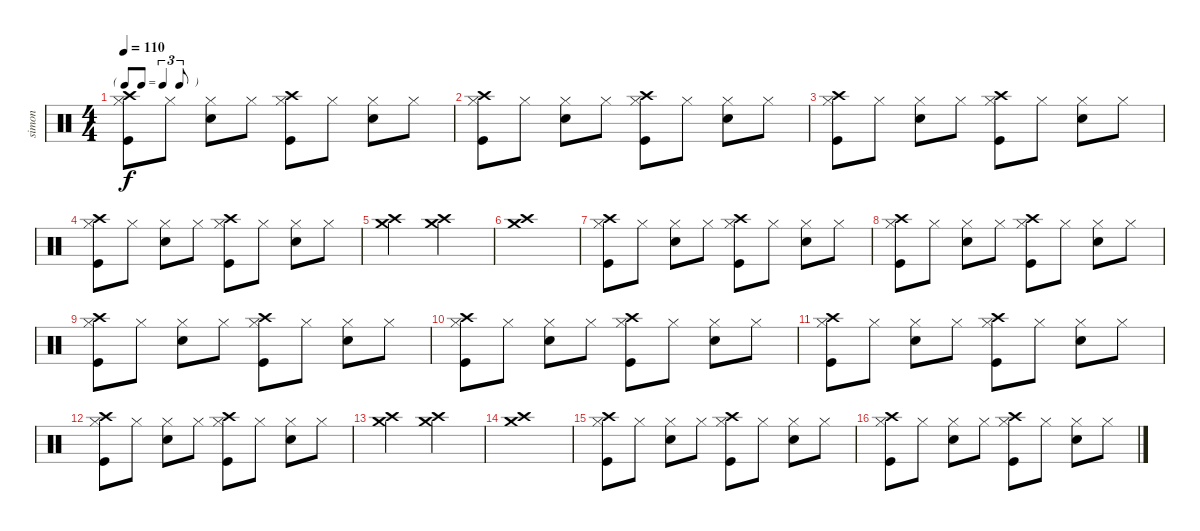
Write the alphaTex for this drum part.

\track ("simon" "simon") {instrument percussion}
\staff {score}
\articulation defaults
\ts (4 4)
\tf triplet8th
\tempo 110
\clef neutral
\ks c
("Hi-Hat (closed)" "Kick (hit)" "Crash high (hit)").8{dy f} "Hi-Hat (closed)".8 ("Hi-Hat (closed)" "Snare (hit) 2").8 "Hi-Hat (closed)".8 ("Hi-Hat (closed)" "Kick (hit)" "Crash high (hit)").8 "Hi-Hat (closed)".8 ("Hi-Hat (closed)" "Snare (hit) 2").8 "Hi-Hat (closed)".8 |
("Hi-Hat (closed)" "Kick (hit)" "Crash high (hit)").8 "Hi-Hat (closed)".8 ("Hi-Hat (closed)" "Snare (hit) 2").8 "Hi-Hat (closed)".8 ("Hi-Hat (closed)" "Kick (hit)" "Crash high (hit)").8 "Hi-Hat (closed)".8 ("Hi-Hat (closed)" "Snare (hit) 2").8 "Hi-Hat (closed)".8 |
("Hi-Hat (closed)" "Kick (hit)" "Crash high (hit)").8 "Hi-Hat (closed)".8 ("Hi-Hat (closed)" "Snare (hit) 2").8 "Hi-Hat (closed)".8 ("Hi-Hat (closed)" "Kick (hit)" "Crash high (hit)").8 "Hi-Hat (closed)".8 ("Hi-Hat (closed)" "Snare (hit) 2").8 "Hi-Hat (closed)".8 |
("Hi-Hat (closed)" "Kick (hit)" "Crash high (hit)").8 "Hi-Hat (closed)".8 ("Hi-Hat (closed)" "Snare (hit) 2").8 "Hi-Hat (closed)".8 ("Hi-Hat (closed)" "Kick (hit)" "Crash high (hit)").8 "Hi-Hat (closed)".8 ("Hi-Hat (closed)" "Snare (hit) 2").8 "Hi-Hat (closed)".8 |
("Crash medium (hit)" "Crash high (hit)").2 ("Crash medium (hit)" "Crash high (hit)").2 |
("Crash high (hit)" "Crash medium (hit)").1 |
("Hi-Hat (closed)" "Kick (hit)" "Crash high (hit)").8 "Hi-Hat (closed)".8 ("Hi-Hat (closed)" "Snare (hit) 2").8 "Hi-Hat (closed)".8 ("Hi-Hat (closed)" "Kick (hit)" "Crash high (hit)").8 "Hi-Hat (closed)".8 ("Hi-Hat (closed)" "Snare (hit) 2").8 "Hi-Hat (closed)".8 |
("Hi-Hat (closed)" "Kick (hit)" "Crash high (hit)").8 "Hi-Hat (closed)".8 ("Hi-Hat (closed)" "Snare (hit) 2").8 "Hi-Hat (closed)".8 ("Hi-Hat (closed)" "Kick (hit)" "Crash high (hit)").8 "Hi-Hat (closed)".8 ("Hi-Hat (closed)" "Snare (hit) 2").8 "Hi-Hat (closed)".8 |
("Hi-Hat (closed)" "Kick (hit)" "Crash high (hit)").8 "Hi-Hat (closed)".8 ("Hi-Hat (closed)" "Snare (hit) 2").8 "Hi-Hat (closed)".8 ("Hi-Hat (closed)" "Kick (hit)" "Crash high (hit)").8 "Hi-Hat (closed)".8 ("Hi-Hat (closed)" "Snare (hit) 2").8 "Hi-Hat (closed)".8 |
("Hi-Hat (closed)" "Kick (hit)" "Crash high (hit)").8 "Hi-Hat (closed)".8 ("Hi-Hat (closed)" "Snare (hit) 2").8 "Hi-Hat (closed)".8 ("Hi-Hat (closed)" "Kick (hit)" "Crash high (hit)").8 "Hi-Hat (closed)".8 ("Hi-Hat (closed)" "Snare (hit) 2").8 "Hi-Hat (closed)".8 |
("Hi-Hat (closed)" "Kick (hit)" "Crash high (hit)").8 "Hi-Hat (closed)".8 ("Hi-Hat (closed)" "Snare (hit) 2").8 "Hi-Hat (closed)".8 ("Hi-Hat (closed)" "Kick (hit)" "Crash high (hit)").8 "Hi-Hat (closed)".8 ("Hi-Hat (closed)" "Snare (hit) 2").8 "Hi-Hat (closed)".8 |
("Hi-Hat (closed)" "Kick (hit)" "Crash high (hit)").8 "Hi-Hat (closed)".8 ("Hi-Hat (closed)" "Snare (hit) 2").8 "Hi-Hat (closed)".8 ("Hi-Hat (closed)" "Kick (hit)" "Crash high (hit)").8 "Hi-Hat (closed)".8 ("Hi-Hat (closed)" "Snare (hit) 2").8 "Hi-Hat (closed)".8 |
("Crash medium (hit)" "Crash high (hit)").2 ("Crash medium (hit)" "Crash high (hit)").2 |
("Crash high (hit)" "Crash medium (hit)").1 |
("Hi-Hat (closed)" "Kick (hit)" "Crash high (hit)").8 "Hi-Hat (closed)".8 ("Hi-Hat (closed)" "Snare (hit) 2").8 "Hi-Hat (closed)".8 ("Hi-Hat (closed)" "Kick (hit)" "Crash high (hit)").8 "Hi-Hat (closed)".8 ("Hi-Hat (closed)" "Snare (hit) 2").8 "Hi-Hat (closed)".8 |
("Hi-Hat (closed)" "Kick (hit)" "Crash high (hit)").8 "Hi-Hat (closed)".8 ("Hi-Hat (closed)" "Snare (hit) 2").8 "Hi-Hat (closed)".8 ("Hi-Hat (closed)" "Kick (hit)" "Crash high (hit)").8 "Hi-Hat (closed)".8 ("Hi-Hat (closed)" "Snare (hit) 2").8 "Hi-Hat (closed)".8
